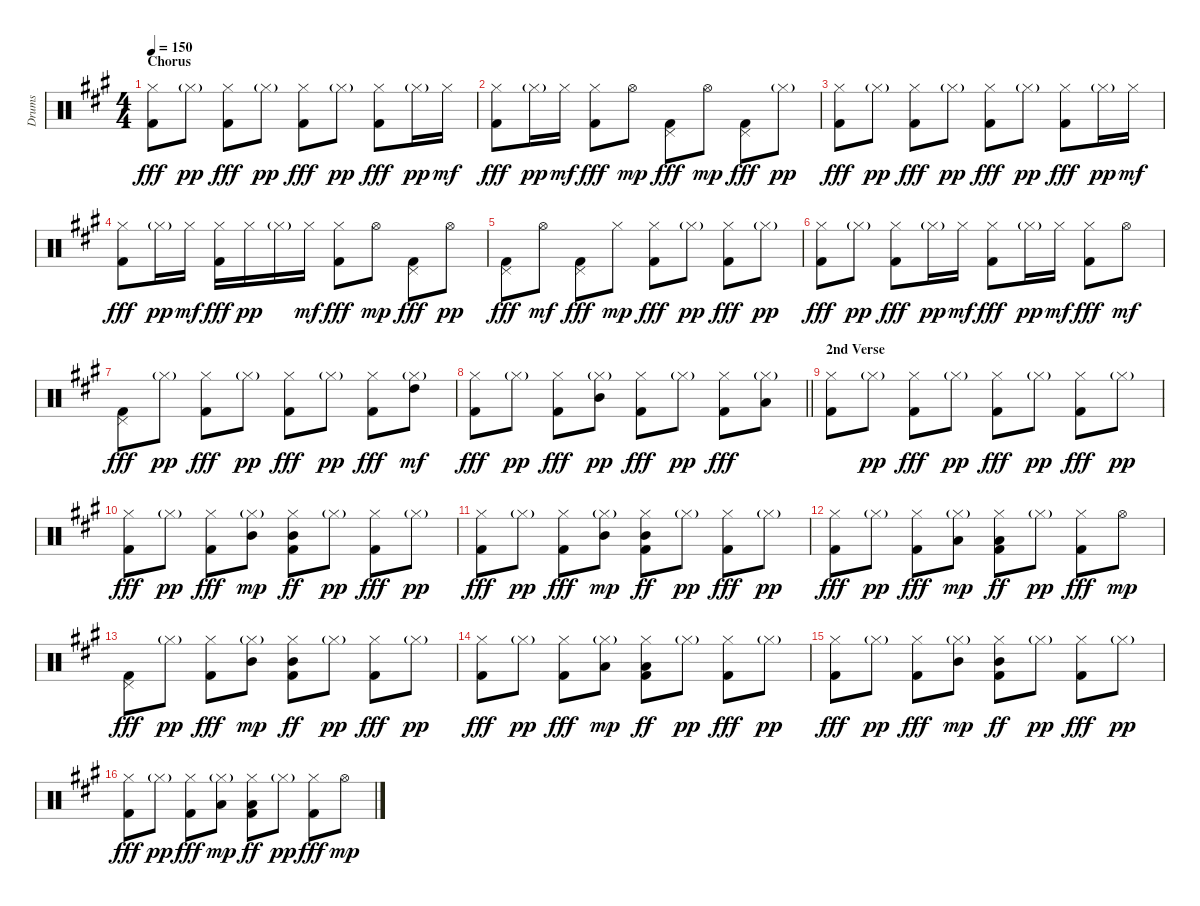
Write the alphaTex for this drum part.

\track ("Drums" "Drums") {instrument percussion}
\staff {score}
\articulation defaults
\ts (4 4)
\section ("" "Chorus")
\tempo 150
\clef neutral
\ks a
("Kick (hit) 2" "Hi-Hat (closed)").8{dy fff} "Hi-Hat (closed)"{g}.8{dy pp} ("Kick (hit) 2" "Hi-Hat (closed)").8{dy fff} "Hi-Hat (closed)"{g}.8{dy pp} ("Kick (hit) 2" "Hi-Hat (closed)").8{dy fff} "Hi-Hat (closed)"{g}.8{dy pp} ("Kick (hit) 2" "Hi-Hat (closed)").8{dy fff} "Hi-Hat (closed)"{g}.16{dy pp} "Hi-Hat (closed)".16{dy mf} |
("Kick (hit) 2" "Hi-Hat (closed)").8{dy fff} "Hi-Hat (closed)"{g}.16{dy pp} "Hi-Hat (closed)".16{dy mf} ("Kick (hit) 2" "Hi-Hat (closed)").8{dy fff} "Hi-Hat (open)".8{dy mp} ("Kick (hit) 2" "Pedal Hi-Hat (hit)").8{dy fff} "Hi-Hat (open)".8{dy mp} ("Kick (hit) 2" "Pedal Hi-Hat (hit)").8{dy fff} "Hi-Hat (closed)"{g}.8{dy pp} |
("Kick (hit) 2" "Hi-Hat (closed)").8{dy fff} "Hi-Hat (closed)"{g}.8{dy pp} ("Kick (hit) 2" "Hi-Hat (closed)").8{dy fff} "Hi-Hat (closed)"{g}.8{dy pp} ("Kick (hit) 2" "Hi-Hat (closed)").8{dy fff} "Hi-Hat (closed)"{g}.8{dy pp} ("Kick (hit) 2" "Hi-Hat (closed)").8{dy fff} "Hi-Hat (closed)"{g}.16{dy pp} "Hi-Hat (closed)".16{dy mf} |
("Kick (hit) 2" "Hi-Hat (closed)").8{dy fff} "Hi-Hat (closed)"{g}.16{dy pp} "Hi-Hat (closed)".16{dy mf} ("Kick (hit) 2" "Hi-Hat (closed)").16{dy fff} "Hi-Hat (closed)".16{dy pp} "Hi-Hat (closed)"{g}.16 "Hi-Hat (closed)".16{dy mf} ("Kick (hit) 2" "Hi-Hat (closed)").8{dy fff} "Hi-Hat (open)".8{dy mp} ("Kick (hit) 2" "Pedal Hi-Hat (hit)").8{dy fff} "Hi-Hat (open)".8{dy pp} |
("Kick (hit) 2" "Pedal Hi-Hat (hit)").8{dy fff} "Hi-Hat (open)".8{dy mf} ("Kick (hit) 2" "Pedal Hi-Hat (hit)").8{dy fff} "Hi-Hat (closed)".8{dy mp} ("Kick (hit) 2" "Hi-Hat (closed)").8{dy fff} "Hi-Hat (closed)"{g}.8{dy pp} ("Kick (hit) 2" "Hi-Hat (closed)").8{dy fff} "Hi-Hat (closed)"{g}.8{dy pp} |
("Kick (hit) 2" "Hi-Hat (closed)").8{dy fff} "Hi-Hat (closed)"{g}.8{dy pp} ("Kick (hit) 2" "Hi-Hat (closed)").8{dy fff} "Hi-Hat (closed)"{g}.16{dy pp} "Hi-Hat (closed)".16{dy mf} ("Kick (hit) 2" "Hi-Hat (closed)").8{dy fff} "Hi-Hat (closed)"{g}.16{dy pp} "Hi-Hat (closed)".16{dy mf} ("Kick (hit) 2" "Hi-Hat (closed)").8{dy fff} "Hi-Hat (open)".8{dy mf} |
("Kick (hit) 2" "Pedal Hi-Hat (hit)").8{dy fff} "Hi-Hat (closed)"{g}.8{dy pp} ("Kick (hit) 2" "Hi-Hat (closed)").8{dy fff} "Hi-Hat (closed)"{g}.8{dy pp} ("Kick (hit) 2" "Hi-Hat (closed)").8{dy fff} "Hi-Hat (closed)"{g}.8{dy pp} ("Kick (hit) 2" "Hi-Hat (closed)").8{dy fff} ("Hi-Hat (closed)"{g} "High Tom (hit)").8{dy mf} |
\barLineRight lightlight
("Kick (hit) 2" "Hi-Hat (closed)").8{dy fff} "Hi-Hat (closed)"{g}.8{dy pp} ("Kick (hit) 2" "Hi-Hat (closed)").8{dy fff} ("Hi-Hat (closed)"{g} "Mid Tom (hit)").8{dy pp} ("Kick (hit) 2" "Hi-Hat (closed)").8{dy fff} "Hi-Hat (closed)"{g}.8{dy pp} ("Kick (hit) 2" "Hi-Hat (closed)").8{dy fff} ("Hi-Hat (closed)"{g} "Low Tom (hit)").8 |
\section ("" "2nd Verse")
("Kick (hit) 2" "Hi-Hat (closed)").8 "Hi-Hat (closed)"{g}.8{dy pp} ("Kick (hit) 2" "Hi-Hat (closed)").8{dy fff} "Hi-Hat (closed)"{g}.8{dy pp} ("Kick (hit) 2" "Hi-Hat (closed)").8{dy fff} "Hi-Hat (closed)"{g}.8{dy pp} ("Kick (hit) 2" "Hi-Hat (closed)").8{dy fff} "Hi-Hat (closed)"{g}.8{dy pp} |
("Kick (hit) 2" "Hi-Hat (closed)").8{dy fff} "Hi-Hat (closed)"{g}.8{dy pp} ("Kick (hit) 2" "Hi-Hat (closed)").8{dy fff} ("Hi-Hat (closed)"{g} "Mid Tom (hit)").8{dy mp} ("Kick (hit) 2" "Hi-Hat (closed)" "Mid Tom (hit)").8{dy ff} "Hi-Hat (closed)"{g}.8{dy pp} ("Kick (hit) 2" "Hi-Hat (closed)").8{dy fff} "Hi-Hat (closed)"{g}.8{dy pp} |
("Kick (hit) 2" "Hi-Hat (closed)").8{dy fff} "Hi-Hat (closed)"{g}.8{dy pp} ("Kick (hit) 2" "Hi-Hat (closed)").8{dy fff} ("Hi-Hat (closed)"{g} "Mid Tom (hit)").8{dy mp} ("Kick (hit) 2" "Hi-Hat (closed)" "Mid Tom (hit)").8{dy ff} "Hi-Hat (closed)"{g}.8{dy pp} ("Kick (hit) 2" "Hi-Hat (closed)").8{dy fff} "Hi-Hat (closed)"{g}.8{dy pp} |
("Kick (hit) 2" "Hi-Hat (closed)").8{dy fff} "Hi-Hat (closed)"{g}.8{dy pp} ("Kick (hit) 2" "Hi-Hat (closed)").8{dy fff} ("Hi-Hat (closed)"{g} "Low Tom (hit)").8{dy mp} ("Kick (hit) 2" "Hi-Hat (closed)" "Low Tom (hit)").8{dy ff} "Hi-Hat (closed)"{g}.8{dy pp} ("Kick (hit) 2" "Hi-Hat (closed)").8{dy fff} "Hi-Hat (open)".8{dy mp} |
("Kick (hit) 2" "Pedal Hi-Hat (hit)").8{dy fff} "Hi-Hat (closed)"{g}.8{dy pp} ("Kick (hit) 2" "Hi-Hat (closed)").8{dy fff} ("Hi-Hat (closed)"{g} "Mid Tom (hit)").8{dy mp} ("Kick (hit) 2" "Hi-Hat (closed)" "Mid Tom (hit)").8{dy ff} "Hi-Hat (closed)"{g}.8{dy pp} ("Kick (hit) 2" "Hi-Hat (closed)").8{dy fff} "Hi-Hat (closed)"{g}.8{dy pp} |
("Kick (hit) 2" "Hi-Hat (closed)").8{dy fff} "Hi-Hat (closed)"{g}.8{dy pp} ("Kick (hit) 2" "Hi-Hat (closed)").8{dy fff} ("Hi-Hat (closed)"{g} "Low Tom (hit)").8{dy mp} ("Kick (hit) 2" "Hi-Hat (closed)" "Low Tom (hit)").8{dy ff} "Hi-Hat (closed)"{g}.8{dy pp} ("Kick (hit) 2" "Hi-Hat (closed)").8{dy fff} "Hi-Hat (closed)"{g}.8{dy pp} |
("Kick (hit) 2" "Hi-Hat (closed)").8{dy fff} "Hi-Hat (closed)"{g}.8{dy pp} ("Kick (hit) 2" "Hi-Hat (closed)").8{dy fff} ("Hi-Hat (closed)"{g} "Mid Tom (hit)").8{dy mp} ("Kick (hit) 2" "Hi-Hat (closed)" "Mid Tom (hit)").8{dy ff} "Hi-Hat (closed)"{g}.8{dy pp} ("Kick (hit) 2" "Hi-Hat (closed)").8{dy fff} "Hi-Hat (closed)"{g}.8{dy pp} |
("Kick (hit) 2" "Hi-Hat (closed)").8{dy fff} "Hi-Hat (closed)"{g}.8{dy pp} ("Kick (hit) 2" "Hi-Hat (closed)").8{dy fff} ("Hi-Hat (closed)"{g} "Low Tom (hit)").8{dy mp} ("Kick (hit) 2" "Hi-Hat (closed)" "Low Tom (hit)").8{dy ff} "Hi-Hat (closed)"{g}.8{dy pp} ("Kick (hit) 2" "Hi-Hat (closed)").8{dy fff} "Hi-Hat (open)".8{dy mp}
